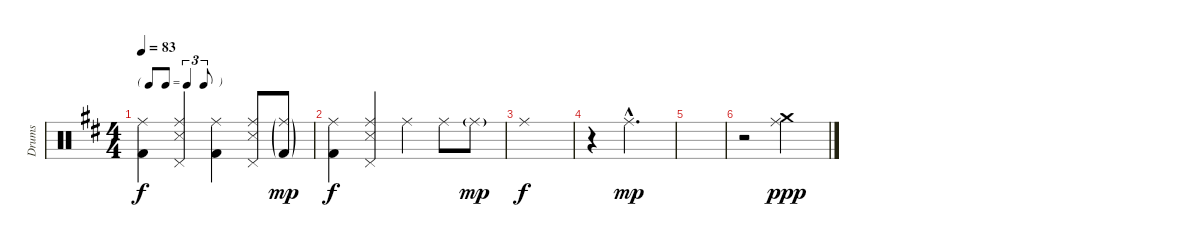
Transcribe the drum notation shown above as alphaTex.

\track ("Drums" "Drums") {instrument percussion}
\staff {score}
\articulation defaults
\ts (4 4)
\tf triplet8th
\tempo 83
\clef neutral
\ks d
("Ride (middle)" "Kick (hit) 2").4{dy f} ("Ride (middle)" "Snare (side stick) 3" "Pedal Hi-Hat (hit)").4 ("Ride (middle)" "Kick (hit) 2").4 ("Ride (middle)" "Snare (side stick) 3" "Pedal Hi-Hat (hit)").8 ("Ride (middle)"{g} "Kick (hit) 2"{g}).8{dy mp} |
("Ride (middle)" "Kick (hit) 2").4{dy f} ("Ride (middle)" "Snare (side stick) 3" "Pedal Hi-Hat (hit)").4 "Ride (middle)".4 "Ride (middle)".8 "Ride (middle)"{g}.8{dy mp} |
"Ride (middle)".1{dy f} |
r.4 "Ride (middle)"{hac}.2{d dy mp} |
|
r.2 ("Ride (middle)" "Crash medium (hit)").2{dy ppp}
